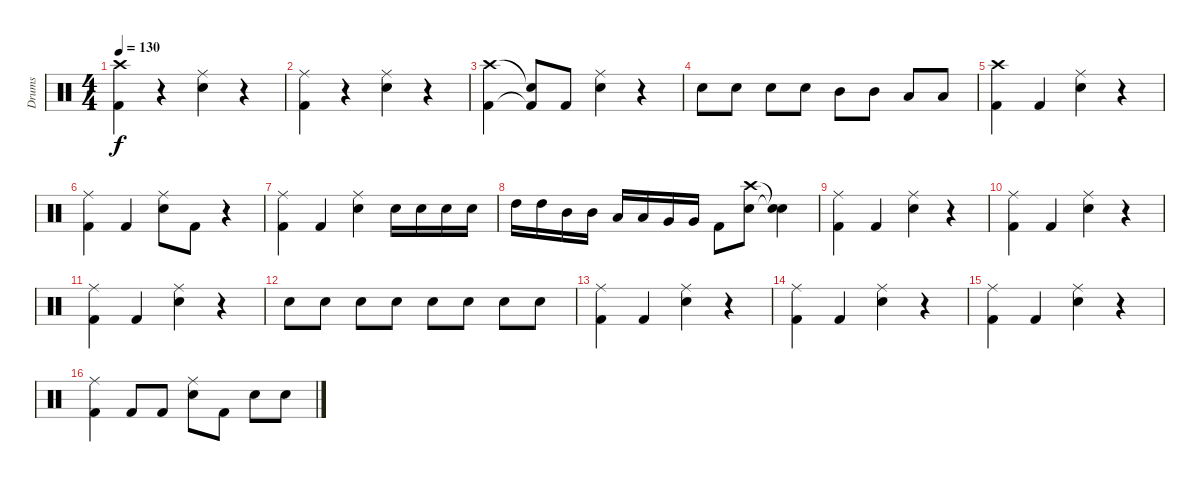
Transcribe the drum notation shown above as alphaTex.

\track ("Drums" "Drums") {instrument percussion}
\staff {score}
\articulation defaults
\ts (4 4)
\tempo 130
\clef neutral
\ks c
("Crash high (hit)" "Kick (hit) 2").4{dy f} r.4 ("Ride (middle)" "Electric Snare (hit)").4 r.4 |
("Ride (middle)" "Kick (hit) 2").4 r.4 ("Ride (middle)" "Electric Snare (hit)").4 r.4 |
("Crash high (hit)" "Kick (hit) 2").4 ("Snare (hit)"{t} "Kick (hit) 2"{t}).8 "Kick (hit) 2".8 ("Ride (middle)" "Electric Snare (hit)").4 r.4 |
"Electric Snare (hit)".8 "Electric Snare (hit)".8 "Electric Snare (hit)".8 "Electric Snare (hit)".8 "Mid Tom (hit)".8 "Mid Tom (hit)".8 "Low Tom (hit)".8 "Low Tom (hit)".8 |
("Crash high (hit)" "Kick (hit) 2").4 "Kick (hit) 2".4 ("Ride (middle)" "Electric Snare (hit)").4 r.4 |
("Ride (middle)" "Kick (hit) 2").4 "Kick (hit) 2".4 ("Ride (middle)" "Electric Snare (hit)").8 "Kick (hit) 2".8 r.4 |
("Ride (middle)" "Kick (hit) 2").4 "Kick (hit) 2".4 ("Ride (middle)" "Electric Snare (hit)").4 "Electric Snare (hit)".16 "Electric Snare (hit)".16 "Electric Snare (hit)".16 "Electric Snare (hit)".16 |
"High Tom (hit)".16 "High Tom (hit)".16 "Mid Tom (hit)".16 "Mid Tom (hit)".16 "Low Tom (hit)".16 "Low Tom (hit)".16 "Very Low Tom (hit)".16 "Very Low Tom (hit)".16 "Kick (hit) 2".8 ("Crash high (hit)" "Electric Snare (hit)").8 ("Snare (hit)"{t} "Snare (hit)"{t}).4 |
("Ride (middle)" "Kick (hit) 2").4 "Kick (hit) 2".4 ("Ride (middle)" "Electric Snare (hit)").4 r.4 |
("Ride (middle)" "Kick (hit) 2").4 "Kick (hit) 2".4 ("Ride (middle)" "Electric Snare (hit)").4 r.4 |
("Ride (middle)" "Kick (hit) 2").4 "Kick (hit) 2".4 ("Ride (middle)" "Electric Snare (hit)").4 r.4 |
"Electric Snare (hit)".8 "Electric Snare (hit)".8 "Electric Snare (hit)".8 "Electric Snare (hit)".8 "Electric Snare (hit)".8 "Electric Snare (hit)".8 "Electric Snare (hit)".8 "Electric Snare (hit)".8 |
("Ride (middle)" "Kick (hit) 2").4 "Kick (hit) 2".4 ("Ride (middle)" "Electric Snare (hit)").4 r.4 |
("Ride (middle)" "Kick (hit) 2").4 "Kick (hit) 2".4 ("Ride (middle)" "Electric Snare (hit)").4 r.4 |
("Ride (middle)" "Kick (hit) 2").4 "Kick (hit) 2".4 ("Ride (middle)" "Electric Snare (hit)").4 r.4 |
("Ride (middle)" "Kick (hit) 2").4 "Kick (hit) 2".8 "Kick (hit) 2".8 ("Ride (middle)" "Electric Snare (hit)").8 "Kick (hit) 2".8 "Electric Snare (hit)".8 "Electric Snare (hit)".8
